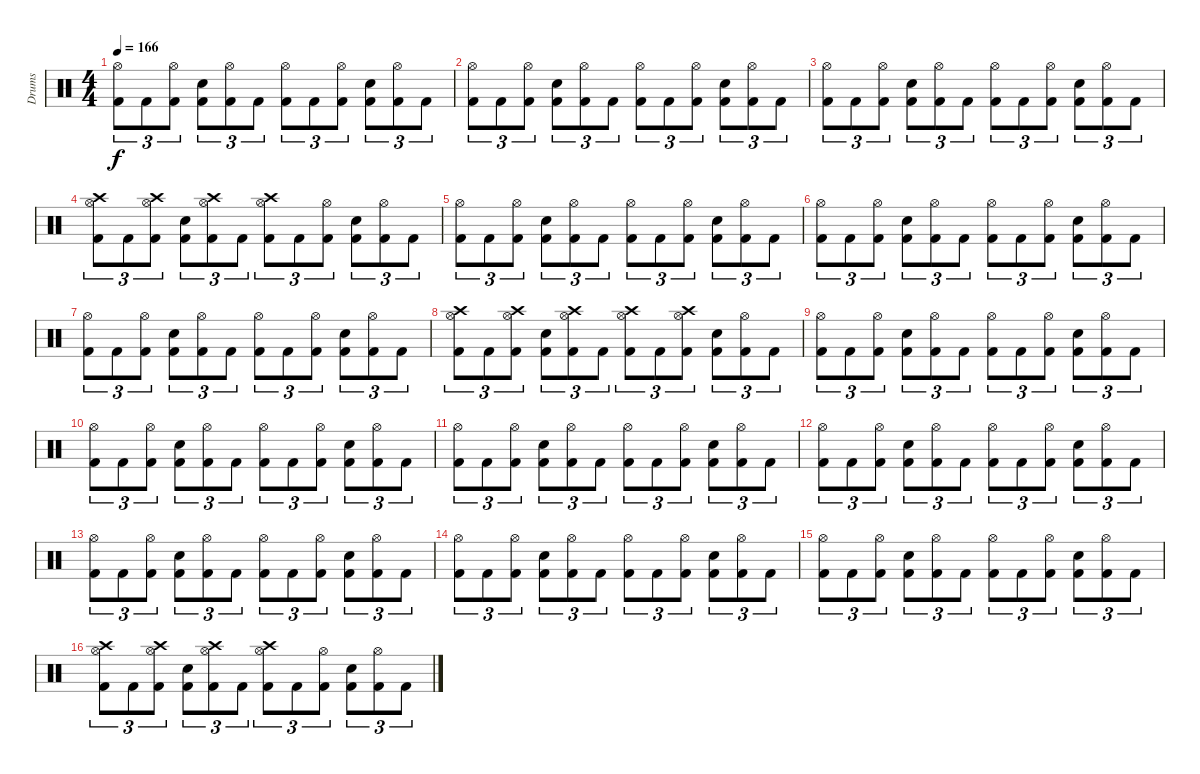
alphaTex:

\track ("Drums" "Drums") {instrument percussion}
\staff {score}
\articulation defaults
\ts (4 4)
\tempo 166
\clef neutral
\ks c
("Kick (hit) 2" "Hi-Hat (open)").8{tu (3 2) dy f} "Kick (hit) 2".8{tu (3 2)} ("Kick (hit) 2" "Hi-Hat (open)").8{tu (3 2)} ("Kick (hit) 2" "Electric Snare (hit)").8{tu (3 2)} ("Kick (hit) 2" "Hi-Hat (open)").8{tu (3 2)} "Kick (hit) 2".8{tu (3 2)} ("Kick (hit) 2" "Hi-Hat (open)").8{tu (3 2)} "Kick (hit) 2".8{tu (3 2)} ("Kick (hit) 2" "Hi-Hat (open)").8{tu (3 2)} ("Kick (hit) 2" "Electric Snare (hit)").8{tu (3 2)} ("Kick (hit) 2" "Hi-Hat (open)").8{tu (3 2)} "Kick (hit) 2".8{tu (3 2)} |
("Kick (hit) 2" "Hi-Hat (open)").8{tu (3 2)} "Kick (hit) 2".8{tu (3 2)} ("Kick (hit) 2" "Hi-Hat (open)").8{tu (3 2)} ("Kick (hit) 2" "Electric Snare (hit)").8{tu (3 2)} ("Kick (hit) 2" "Hi-Hat (open)").8{tu (3 2)} "Kick (hit) 2".8{tu (3 2)} ("Kick (hit) 2" "Hi-Hat (open)").8{tu (3 2)} "Kick (hit) 2".8{tu (3 2)} ("Kick (hit) 2" "Hi-Hat (open)").8{tu (3 2)} ("Kick (hit) 2" "Electric Snare (hit)").8{tu (3 2)} ("Kick (hit) 2" "Hi-Hat (open)").8{tu (3 2)} "Kick (hit) 2".8{tu (3 2)} |
("Kick (hit) 2" "Hi-Hat (open)").8{tu (3 2)} "Kick (hit) 2".8{tu (3 2)} ("Kick (hit) 2" "Hi-Hat (open)").8{tu (3 2)} ("Kick (hit) 2" "Electric Snare (hit)").8{tu (3 2)} ("Kick (hit) 2" "Hi-Hat (open)").8{tu (3 2)} "Kick (hit) 2".8{tu (3 2)} ("Kick (hit) 2" "Hi-Hat (open)").8{tu (3 2)} "Kick (hit) 2".8{tu (3 2)} ("Kick (hit) 2" "Hi-Hat (open)").8{tu (3 2)} ("Kick (hit) 2" "Electric Snare (hit)").8{tu (3 2)} ("Kick (hit) 2" "Hi-Hat (open)").8{tu (3 2)} "Kick (hit) 2".8{tu (3 2)} |
("Kick (hit) 2" "Hi-Hat (open)" "Crash high (hit)").8{tu (3 2)} "Kick (hit) 2".8{tu (3 2)} ("Kick (hit) 2" "Hi-Hat (open)" "Crash high (hit)").8{tu (3 2)} ("Kick (hit) 2" "Electric Snare (hit)").8{tu (3 2)} ("Kick (hit) 2" "Hi-Hat (open)" "Crash high (hit)").8{tu (3 2)} "Kick (hit) 2".8{tu (3 2)} ("Kick (hit) 2" "Hi-Hat (open)" "Crash high (hit)").8{tu (3 2)} "Kick (hit) 2".8{tu (3 2)} ("Kick (hit) 2" "Hi-Hat (open)").8{tu (3 2)} ("Kick (hit) 2" "Electric Snare (hit)").8{tu (3 2)} ("Kick (hit) 2" "Hi-Hat (open)").8{tu (3 2)} "Kick (hit) 2".8{tu (3 2)} |
("Kick (hit) 2" "Hi-Hat (open)").8{tu (3 2)} "Kick (hit) 2".8{tu (3 2)} ("Kick (hit) 2" "Hi-Hat (open)").8{tu (3 2)} ("Kick (hit) 2" "Electric Snare (hit)").8{tu (3 2)} ("Kick (hit) 2" "Hi-Hat (open)").8{tu (3 2)} "Kick (hit) 2".8{tu (3 2)} ("Kick (hit) 2" "Hi-Hat (open)").8{tu (3 2)} "Kick (hit) 2".8{tu (3 2)} ("Kick (hit) 2" "Hi-Hat (open)").8{tu (3 2)} ("Kick (hit) 2" "Electric Snare (hit)").8{tu (3 2)} ("Kick (hit) 2" "Hi-Hat (open)").8{tu (3 2)} "Kick (hit) 2".8{tu (3 2)} |
("Kick (hit) 2" "Hi-Hat (open)").8{tu (3 2)} "Kick (hit) 2".8{tu (3 2)} ("Kick (hit) 2" "Hi-Hat (open)").8{tu (3 2)} ("Kick (hit) 2" "Electric Snare (hit)").8{tu (3 2)} ("Kick (hit) 2" "Hi-Hat (open)").8{tu (3 2)} "Kick (hit) 2".8{tu (3 2)} ("Kick (hit) 2" "Hi-Hat (open)").8{tu (3 2)} "Kick (hit) 2".8{tu (3 2)} ("Kick (hit) 2" "Hi-Hat (open)").8{tu (3 2)} ("Kick (hit) 2" "Electric Snare (hit)").8{tu (3 2)} ("Kick (hit) 2" "Hi-Hat (open)").8{tu (3 2)} "Kick (hit) 2".8{tu (3 2)} |
("Kick (hit) 2" "Hi-Hat (open)").8{tu (3 2)} "Kick (hit) 2".8{tu (3 2)} ("Kick (hit) 2" "Hi-Hat (open)").8{tu (3 2)} ("Kick (hit) 2" "Electric Snare (hit)").8{tu (3 2)} ("Kick (hit) 2" "Hi-Hat (open)").8{tu (3 2)} "Kick (hit) 2".8{tu (3 2)} ("Kick (hit) 2" "Hi-Hat (open)").8{tu (3 2)} "Kick (hit) 2".8{tu (3 2)} ("Kick (hit) 2" "Hi-Hat (open)").8{tu (3 2)} ("Kick (hit) 2" "Electric Snare (hit)").8{tu (3 2)} ("Kick (hit) 2" "Hi-Hat (open)").8{tu (3 2)} "Kick (hit) 2".8{tu (3 2)} |
("Kick (hit) 2" "Hi-Hat (open)" "Crash high (hit)").8{tu (3 2)} "Kick (hit) 2".8{tu (3 2)} ("Kick (hit) 2" "Hi-Hat (open)" "Crash high (hit)").8{tu (3 2)} ("Kick (hit) 2" "Electric Snare (hit)").8{tu (3 2)} ("Kick (hit) 2" "Hi-Hat (open)" "Crash high (hit)").8{tu (3 2)} "Kick (hit) 2".8{tu (3 2)} ("Kick (hit) 2" "Hi-Hat (open)" "Crash high (hit)").8{tu (3 2)} "Kick (hit) 2".8{tu (3 2)} ("Kick (hit) 2" "Hi-Hat (open)" "Crash high (hit)").8{tu (3 2)} ("Kick (hit) 2" "Electric Snare (hit)").8{tu (3 2)} ("Kick (hit) 2" "Hi-Hat (open)").8{tu (3 2)} "Kick (hit) 2".8{tu (3 2)} |
("Kick (hit) 2" "Hi-Hat (open)").8{tu (3 2)} "Kick (hit) 2".8{tu (3 2)} ("Kick (hit) 2" "Hi-Hat (open)").8{tu (3 2)} ("Kick (hit) 2" "Electric Snare (hit)").8{tu (3 2)} ("Kick (hit) 2" "Hi-Hat (open)").8{tu (3 2)} "Kick (hit) 2".8{tu (3 2)} ("Kick (hit) 2" "Hi-Hat (open)").8{tu (3 2)} "Kick (hit) 2".8{tu (3 2)} ("Kick (hit) 2" "Hi-Hat (open)").8{tu (3 2)} ("Kick (hit) 2" "Electric Snare (hit)").8{tu (3 2)} ("Kick (hit) 2" "Hi-Hat (open)").8{tu (3 2)} "Kick (hit) 2".8{tu (3 2)} |
("Kick (hit) 2" "Hi-Hat (open)").8{tu (3 2)} "Kick (hit) 2".8{tu (3 2)} ("Kick (hit) 2" "Hi-Hat (open)").8{tu (3 2)} ("Kick (hit) 2" "Electric Snare (hit)").8{tu (3 2)} ("Kick (hit) 2" "Hi-Hat (open)").8{tu (3 2)} "Kick (hit) 2".8{tu (3 2)} ("Kick (hit) 2" "Hi-Hat (open)").8{tu (3 2)} "Kick (hit) 2".8{tu (3 2)} ("Kick (hit) 2" "Hi-Hat (open)").8{tu (3 2)} ("Kick (hit) 2" "Electric Snare (hit)").8{tu (3 2)} ("Kick (hit) 2" "Hi-Hat (open)").8{tu (3 2)} "Kick (hit) 2".8{tu (3 2)} |
("Kick (hit) 2" "Hi-Hat (open)").8{tu (3 2)} "Kick (hit) 2".8{tu (3 2)} ("Kick (hit) 2" "Hi-Hat (open)").8{tu (3 2)} ("Kick (hit) 2" "Electric Snare (hit)").8{tu (3 2)} ("Kick (hit) 2" "Hi-Hat (open)").8{tu (3 2)} "Kick (hit) 2".8{tu (3 2)} ("Kick (hit) 2" "Hi-Hat (open)").8{tu (3 2)} "Kick (hit) 2".8{tu (3 2)} ("Kick (hit) 2" "Hi-Hat (open)").8{tu (3 2)} ("Kick (hit) 2" "Electric Snare (hit)").8{tu (3 2)} ("Kick (hit) 2" "Hi-Hat (open)").8{tu (3 2)} "Kick (hit) 2".8{tu (3 2)} |
("Kick (hit) 2" "Hi-Hat (open)").8{tu (3 2)} "Kick (hit) 2".8{tu (3 2)} ("Kick (hit) 2" "Hi-Hat (open)").8{tu (3 2)} ("Kick (hit) 2" "Electric Snare (hit)").8{tu (3 2)} ("Kick (hit) 2" "Hi-Hat (open)").8{tu (3 2)} "Kick (hit) 2".8{tu (3 2)} ("Kick (hit) 2" "Hi-Hat (open)").8{tu (3 2)} "Kick (hit) 2".8{tu (3 2)} ("Kick (hit) 2" "Hi-Hat (open)").8{tu (3 2)} ("Kick (hit) 2" "Electric Snare (hit)").8{tu (3 2)} ("Kick (hit) 2" "Hi-Hat (open)").8{tu (3 2)} "Kick (hit) 2".8{tu (3 2)} |
("Kick (hit) 2" "Hi-Hat (open)").8{tu (3 2)} "Kick (hit) 2".8{tu (3 2)} ("Kick (hit) 2" "Hi-Hat (open)").8{tu (3 2)} ("Kick (hit) 2" "Electric Snare (hit)").8{tu (3 2)} ("Kick (hit) 2" "Hi-Hat (open)").8{tu (3 2)} "Kick (hit) 2".8{tu (3 2)} ("Kick (hit) 2" "Hi-Hat (open)").8{tu (3 2)} "Kick (hit) 2".8{tu (3 2)} ("Kick (hit) 2" "Hi-Hat (open)").8{tu (3 2)} ("Kick (hit) 2" "Electric Snare (hit)").8{tu (3 2)} ("Kick (hit) 2" "Hi-Hat (open)").8{tu (3 2)} "Kick (hit) 2".8{tu (3 2)} |
("Kick (hit) 2" "Hi-Hat (open)").8{tu (3 2)} "Kick (hit) 2".8{tu (3 2)} ("Kick (hit) 2" "Hi-Hat (open)").8{tu (3 2)} ("Kick (hit) 2" "Electric Snare (hit)").8{tu (3 2)} ("Kick (hit) 2" "Hi-Hat (open)").8{tu (3 2)} "Kick (hit) 2".8{tu (3 2)} ("Kick (hit) 2" "Hi-Hat (open)").8{tu (3 2)} "Kick (hit) 2".8{tu (3 2)} ("Kick (hit) 2" "Hi-Hat (open)").8{tu (3 2)} ("Kick (hit) 2" "Electric Snare (hit)").8{tu (3 2)} ("Kick (hit) 2" "Hi-Hat (open)").8{tu (3 2)} "Kick (hit) 2".8{tu (3 2)} |
("Kick (hit) 2" "Hi-Hat (open)").8{tu (3 2)} "Kick (hit) 2".8{tu (3 2)} ("Kick (hit) 2" "Hi-Hat (open)").8{tu (3 2)} ("Kick (hit) 2" "Electric Snare (hit)").8{tu (3 2)} ("Kick (hit) 2" "Hi-Hat (open)").8{tu (3 2)} "Kick (hit) 2".8{tu (3 2)} ("Kick (hit) 2" "Hi-Hat (open)").8{tu (3 2)} "Kick (hit) 2".8{tu (3 2)} ("Kick (hit) 2" "Hi-Hat (open)").8{tu (3 2)} ("Kick (hit) 2" "Electric Snare (hit)").8{tu (3 2)} ("Kick (hit) 2" "Hi-Hat (open)").8{tu (3 2)} "Kick (hit) 2".8{tu (3 2)} |
("Kick (hit) 2" "Hi-Hat (open)" "Crash high (hit)").8{tu (3 2)} "Kick (hit) 2".8{tu (3 2)} ("Kick (hit) 2" "Hi-Hat (open)" "Crash high (hit)").8{tu (3 2)} ("Kick (hit) 2" "Electric Snare (hit)").8{tu (3 2)} ("Kick (hit) 2" "Hi-Hat (open)" "Crash high (hit)").8{tu (3 2)} "Kick (hit) 2".8{tu (3 2)} ("Kick (hit) 2" "Hi-Hat (open)" "Crash high (hit)").8{tu (3 2)} "Kick (hit) 2".8{tu (3 2)} ("Kick (hit) 2" "Hi-Hat (open)").8{tu (3 2)} ("Kick (hit) 2" "Electric Snare (hit)").8{tu (3 2)} ("Kick (hit) 2" "Hi-Hat (open)").8{tu (3 2)} "Kick (hit) 2".8{tu (3 2)}
